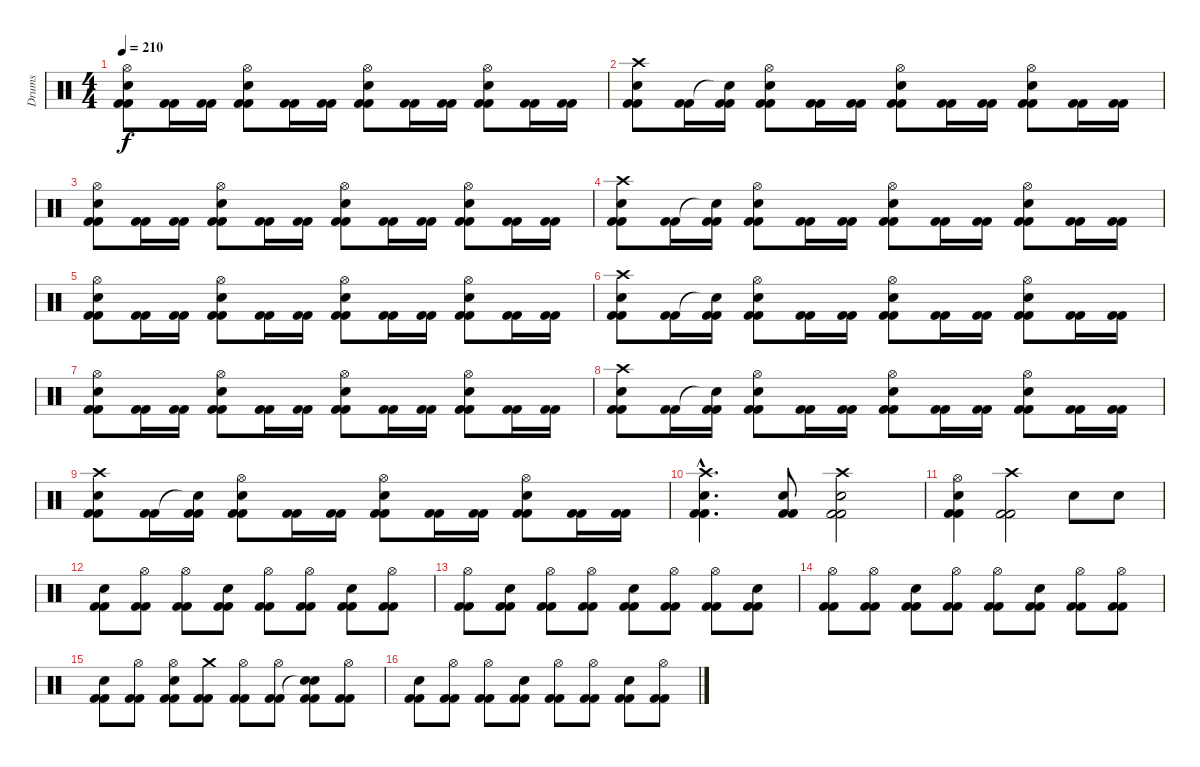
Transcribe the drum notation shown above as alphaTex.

\track ("Drums" "Drums") {instrument percussion}
\staff {score}
\articulation defaults
\ts (4 4)
\tempo 210
\clef neutral
\ks c
("Hi-Hat (open)" "Snare (hit) 2" "Kick (hit) 2" "Kick (hit) 2").8{dy f} ("Kick (hit) 2" "Kick (hit) 2").16 ("Kick (hit) 2" "Kick (hit) 2").16 ("Hi-Hat (open)" "Snare (hit) 2" "Kick (hit) 2" "Kick (hit) 2").8 ("Kick (hit) 2" "Kick (hit) 2").16 ("Kick (hit) 2" "Kick (hit) 2").16 ("Hi-Hat (open)" "Snare (hit) 2" "Kick (hit) 2" "Kick (hit) 2").8 ("Kick (hit) 2" "Kick (hit) 2").16 ("Kick (hit) 2" "Kick (hit) 2").16 ("Hi-Hat (open)" "Snare (hit) 2" "Kick (hit) 2" "Kick (hit) 2").8 ("Kick (hit) 2" "Kick (hit) 2").16 ("Kick (hit) 2" "Kick (hit) 2").16 |
("Crash high (hit)" "Snare (hit) 2" "Kick (hit) 2" "Kick (hit) 2").8 ("Kick (hit) 2" "Kick (hit) 2").16 ("Snare (hit)"{t} "Kick (hit) 2" "Kick (hit) 2").16 ("Hi-Hat (open)" "Snare (hit) 2" "Kick (hit) 2" "Kick (hit) 2").8 ("Kick (hit) 2" "Kick (hit) 2").16 ("Kick (hit) 2" "Kick (hit) 2").16 ("Hi-Hat (open)" "Snare (hit) 2" "Kick (hit) 2" "Kick (hit) 2").8 ("Kick (hit) 2" "Kick (hit) 2").16 ("Kick (hit) 2" "Kick (hit) 2").16 ("Hi-Hat (open)" "Snare (hit) 2" "Kick (hit) 2" "Kick (hit) 2").8 ("Kick (hit) 2" "Kick (hit) 2").16 ("Kick (hit) 2" "Kick (hit) 2").16 |
("Hi-Hat (open)" "Snare (hit) 2" "Kick (hit) 2" "Kick (hit) 2").8 ("Kick (hit) 2" "Kick (hit) 2").16 ("Kick (hit) 2" "Kick (hit) 2").16 ("Hi-Hat (open)" "Snare (hit) 2" "Kick (hit) 2" "Kick (hit) 2").8 ("Kick (hit) 2" "Kick (hit) 2").16 ("Kick (hit) 2" "Kick (hit) 2").16 ("Hi-Hat (open)" "Snare (hit) 2" "Kick (hit) 2" "Kick (hit) 2").8 ("Kick (hit) 2" "Kick (hit) 2").16 ("Kick (hit) 2" "Kick (hit) 2").16 ("Hi-Hat (open)" "Snare (hit) 2" "Kick (hit) 2" "Kick (hit) 2").8 ("Kick (hit) 2" "Kick (hit) 2").16 ("Kick (hit) 2" "Kick (hit) 2").16 |
("Crash high (hit)" "Snare (hit) 2" "Kick (hit) 2" "Kick (hit) 2").8 ("Kick (hit) 2" "Kick (hit) 2").16 ("Snare (hit)"{t} "Kick (hit) 2" "Kick (hit) 2").16 ("Hi-Hat (open)" "Snare (hit) 2" "Kick (hit) 2" "Kick (hit) 2").8 ("Kick (hit) 2" "Kick (hit) 2").16 ("Kick (hit) 2" "Kick (hit) 2").16 ("Hi-Hat (open)" "Snare (hit) 2" "Kick (hit) 2" "Kick (hit) 2").8 ("Kick (hit) 2" "Kick (hit) 2").16 ("Kick (hit) 2" "Kick (hit) 2").16 ("Hi-Hat (open)" "Snare (hit) 2" "Kick (hit) 2" "Kick (hit) 2").8 ("Kick (hit) 2" "Kick (hit) 2").16 ("Kick (hit) 2" "Kick (hit) 2").16 |
("Hi-Hat (open)" "Snare (hit) 2" "Kick (hit) 2" "Kick (hit) 2").8 ("Kick (hit) 2" "Kick (hit) 2").16 ("Kick (hit) 2" "Kick (hit) 2").16 ("Hi-Hat (open)" "Snare (hit) 2" "Kick (hit) 2" "Kick (hit) 2").8 ("Kick (hit) 2" "Kick (hit) 2").16 ("Kick (hit) 2" "Kick (hit) 2").16 ("Hi-Hat (open)" "Snare (hit) 2" "Kick (hit) 2" "Kick (hit) 2").8 ("Kick (hit) 2" "Kick (hit) 2").16 ("Kick (hit) 2" "Kick (hit) 2").16 ("Hi-Hat (open)" "Snare (hit) 2" "Kick (hit) 2" "Kick (hit) 2").8 ("Kick (hit) 2" "Kick (hit) 2").16 ("Kick (hit) 2" "Kick (hit) 2").16 |
("Crash high (hit)" "Snare (hit) 2" "Kick (hit) 2" "Kick (hit) 2").8 ("Kick (hit) 2" "Kick (hit) 2").16 ("Snare (hit)"{t} "Kick (hit) 2" "Kick (hit) 2").16 ("Hi-Hat (open)" "Snare (hit) 2" "Kick (hit) 2" "Kick (hit) 2").8 ("Kick (hit) 2" "Kick (hit) 2").16 ("Kick (hit) 2" "Kick (hit) 2").16 ("Hi-Hat (open)" "Snare (hit) 2" "Kick (hit) 2" "Kick (hit) 2").8 ("Kick (hit) 2" "Kick (hit) 2").16 ("Kick (hit) 2" "Kick (hit) 2").16 ("Hi-Hat (open)" "Snare (hit) 2" "Kick (hit) 2" "Kick (hit) 2").8 ("Kick (hit) 2" "Kick (hit) 2").16 ("Kick (hit) 2" "Kick (hit) 2").16 |
("Hi-Hat (open)" "Snare (hit) 2" "Kick (hit) 2" "Kick (hit) 2").8 ("Kick (hit) 2" "Kick (hit) 2").16 ("Kick (hit) 2" "Kick (hit) 2").16 ("Hi-Hat (open)" "Snare (hit) 2" "Kick (hit) 2" "Kick (hit) 2").8 ("Kick (hit) 2" "Kick (hit) 2").16 ("Kick (hit) 2" "Kick (hit) 2").16 ("Hi-Hat (open)" "Snare (hit) 2" "Kick (hit) 2" "Kick (hit) 2").8 ("Kick (hit) 2" "Kick (hit) 2").16 ("Kick (hit) 2" "Kick (hit) 2").16 ("Hi-Hat (open)" "Snare (hit) 2" "Kick (hit) 2" "Kick (hit) 2").8 ("Kick (hit) 2" "Kick (hit) 2").16 ("Kick (hit) 2" "Kick (hit) 2").16 |
("Crash high (hit)" "Snare (hit) 2" "Kick (hit) 2" "Kick (hit) 2").8 ("Kick (hit) 2" "Kick (hit) 2").16 ("Snare (hit)"{t} "Kick (hit) 2" "Kick (hit) 2").16 ("Hi-Hat (open)" "Snare (hit) 2" "Kick (hit) 2" "Kick (hit) 2").8 ("Kick (hit) 2" "Kick (hit) 2").16 ("Kick (hit) 2" "Kick (hit) 2").16 ("Hi-Hat (open)" "Snare (hit) 2" "Kick (hit) 2" "Kick (hit) 2").8 ("Kick (hit) 2" "Kick (hit) 2").16 ("Kick (hit) 2" "Kick (hit) 2").16 ("Hi-Hat (open)" "Snare (hit) 2" "Kick (hit) 2" "Kick (hit) 2").8 ("Kick (hit) 2" "Kick (hit) 2").16 ("Kick (hit) 2" "Kick (hit) 2").16 |
("Crash high (hit)" "Snare (hit) 2" "Kick (hit) 2" "Kick (hit) 2").8 ("Kick (hit) 2" "Kick (hit) 2").16 ("Snare (hit)"{t} "Kick (hit) 2" "Kick (hit) 2").16 ("Hi-Hat (open)" "Snare (hit) 2" "Kick (hit) 2" "Kick (hit) 2").8 ("Kick (hit) 2" "Kick (hit) 2").16 ("Kick (hit) 2" "Kick (hit) 2").16 ("Hi-Hat (open)" "Snare (hit) 2" "Kick (hit) 2" "Kick (hit) 2").8 ("Kick (hit) 2" "Kick (hit) 2").16 ("Kick (hit) 2" "Kick (hit) 2").16 ("Hi-Hat (open)" "Snare (hit) 2" "Kick (hit) 2" "Kick (hit) 2").8 ("Kick (hit) 2" "Kick (hit) 2").16 ("Kick (hit) 2" "Kick (hit) 2").16 |
("Crash high (hit)"{hac} "Snare (hit) 2"{hac} "Kick (hit) 2"{hac} "Kick (hit) 2"{hac}).4{d} ("Electric Snare (hit)" "Kick (hit) 2" "Kick (hit) 2").8 ("Crash high (hit)" "Snare (hit) 2" "Kick (hit) 2" "Kick (hit) 2").2 |
("Hi-Hat (open)" "Snare (hit) 2" "Kick (hit) 2" "Kick (hit) 2").4 ("Crash high (hit)" "Kick (hit) 2" "Kick (hit) 2").2 "Snare (hit) 2".8 "Snare (hit) 2".8 |
("Snare (hit) 2" "Kick (hit) 2" "Kick (hit) 2").8 ("Hi-Hat (open)" "Kick (hit) 2" "Kick (hit) 2").8 ("Hi-Hat (open)" "Kick (hit) 2" "Kick (hit) 2").8 ("Snare (hit) 2" "Kick (hit) 2" "Kick (hit) 2").8 ("Hi-Hat (open)" "Kick (hit) 2" "Kick (hit) 2").8 ("Hi-Hat (open)" "Kick (hit) 2" "Kick (hit) 2").8 ("Snare (hit) 2" "Kick (hit) 2" "Kick (hit) 2").8 ("Hi-Hat (open)" "Kick (hit) 2" "Kick (hit) 2").8 |
("Hi-Hat (open)" "Kick (hit) 2" "Kick (hit) 2").8 ("Snare (hit) 2" "Kick (hit) 2" "Kick (hit) 2").8 ("Hi-Hat (open)" "Kick (hit) 2" "Kick (hit) 2").8 ("Hi-Hat (open)" "Kick (hit) 2" "Kick (hit) 2").8 ("Snare (hit) 2" "Kick (hit) 2" "Kick (hit) 2").8 ("Hi-Hat (open)" "Kick (hit) 2" "Kick (hit) 2").8 ("Hi-Hat (open)" "Kick (hit) 2" "Kick (hit) 2").8 ("Snare (hit) 2" "Kick (hit) 2" "Kick (hit) 2").8 |
("Hi-Hat (open)" "Kick (hit) 2" "Kick (hit) 2").8 ("Hi-Hat (open)" "Kick (hit) 2" "Kick (hit) 2").8 ("Snare (hit) 2" "Kick (hit) 2" "Kick (hit) 2").8 ("Hi-Hat (open)" "Kick (hit) 2" "Kick (hit) 2").8 ("Hi-Hat (open)" "Kick (hit) 2" "Kick (hit) 2").8 ("Snare (hit) 2" "Kick (hit) 2" "Kick (hit) 2").8 ("Hi-Hat (open)" "Kick (hit) 2" "Kick (hit) 2").8 ("Hi-Hat (open)" "Kick (hit) 2" "Kick (hit) 2").8 |
("Snare (hit) 2" "Kick (hit) 2" "Kick (hit) 2").8 ("Hi-Hat (open)" "Kick (hit) 2" "Kick (hit) 2").8 ("Hi-Hat (open)" "Electric Snare (hit)" "Kick (hit) 2" "Kick (hit) 2").8 ("Crash medium (hit)" "Kick (hit) 2" "Kick (hit) 2").8 ("Hi-Hat (open)" "Kick (hit) 2" "Kick (hit) 2").8 ("Hi-Hat (open)" "Kick (hit) 2" "Kick (hit) 2").8 ("Snare (hit) 2" "Snare (hit)"{t} "Kick (hit) 2" "Kick (hit) 2").8 ("Hi-Hat (open)" "Kick (hit) 2" "Kick (hit) 2").8 |
("Snare (hit) 2" "Kick (hit) 2" "Kick (hit) 2").8 ("Hi-Hat (open)" "Kick (hit) 2" "Kick (hit) 2").8 ("Hi-Hat (open)" "Kick (hit) 2" "Kick (hit) 2").8 ("Snare (hit) 2" "Kick (hit) 2" "Kick (hit) 2").8 ("Hi-Hat (open)" "Kick (hit) 2" "Kick (hit) 2").8 ("Hi-Hat (open)" "Kick (hit) 2" "Kick (hit) 2").8 ("Snare (hit) 2" "Kick (hit) 2" "Kick (hit) 2").8 ("Hi-Hat (open)" "Kick (hit) 2" "Kick (hit) 2").8
